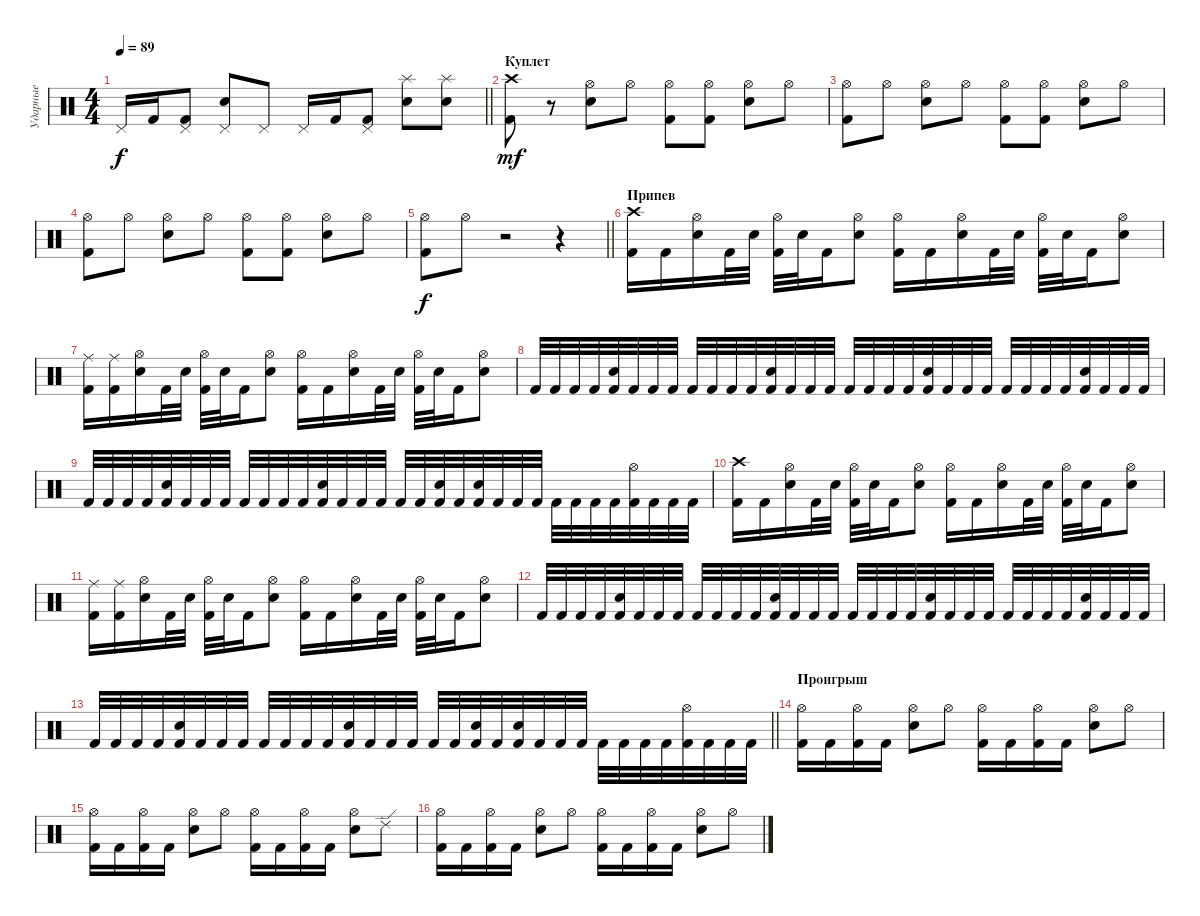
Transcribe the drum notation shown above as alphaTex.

\track ("Ударные" "Ударные") {instrument percussion}
\staff {score}
\articulation defaults
\ts (4 4)
\tempo 89
\clef neutral
\barLineRight lightlight
\ks c "Pedal Hi-Hat (hit)".16{dy f} "Kick (hit) 2".16
("Kick (hit) 2" "Pedal Hi-Hat (hit)").8 ("Electric Snare (hit)" "Pedal Hi-Hat (hit)").8 "Pedal Hi-Hat (hit)".8 "Pedal Hi-Hat (hit)".16 "Kick (hit) 2".16 ("Kick (hit) 2" "Pedal Hi-Hat (hit)").8 ("Electric Snare (hit)" "Splash (hit)").8 ("Electric Snare (hit)" "Splash (hit)").8 |
\section ("" "Куплет")
("Kick (hit) 2" "Crash high (hit)").8{dy mf} r.8 ("Electric Snare (hit)" "Hi-Hat (open)").8 "Hi-Hat (open)".8 ("Kick (hit) 2" "Hi-Hat (open)").8 ("Kick (hit) 2" "Hi-Hat (open)").8 ("Electric Snare (hit)" "Hi-Hat (open)").8 "Hi-Hat (open)".8 |
("Kick (hit) 2" "Hi-Hat (open)").8 "Hi-Hat (open)".8 ("Electric Snare (hit)" "Hi-Hat (open)").8 "Hi-Hat (open)".8 ("Kick (hit) 2" "Hi-Hat (open)").8 ("Kick (hit) 2" "Hi-Hat (open)").8 ("Electric Snare (hit)" "Hi-Hat (open)").8 "Hi-Hat (open)".8 |
("Kick (hit) 2" "Hi-Hat (open)").8 "Hi-Hat (open)".8 ("Electric Snare (hit)" "Hi-Hat (open)").8 "Hi-Hat (open)".8 ("Kick (hit) 2" "Hi-Hat (open)").8 ("Kick (hit) 2" "Hi-Hat (open)").8 ("Electric Snare (hit)" "Hi-Hat (open)").8 "Hi-Hat (open)".8 |
\barLineRight lightlight
("Kick (hit) 2" "Hi-Hat (open)").8{dy f} "Hi-Hat (open)".8 r.2 r.4 |
\section ("" "Припев")
("Kick (hit) 2" "Crash high (hit)").16 "Kick (hit) 2".16 ("Electric Snare (hit)" "Hi-Hat (open)").16 "Kick (hit) 2".32 "Electric Snare (hit)".32 ("Kick (hit) 2" "Hi-Hat (open)").32 "Electric Snare (hit)".32 "Kick (hit) 2".16 ("Electric Snare (hit)" "Hi-Hat (open)").8 ("Kick (hit) 2" "Hi-Hat (open)").16 "Kick (hit) 2".16 ("Electric Snare (hit)" "Hi-Hat (open)").16 "Kick (hit) 2".32 "Electric Snare (hit)".32 ("Kick (hit) 2" "Hi-Hat (open)").32 "Electric Snare (hit)".32 "Kick (hit) 2".16 ("Electric Snare (hit)" "Hi-Hat (open)").8 |
("Kick (hit) 2" "Ride (middle)").16 ("Kick (hit) 2" "Ride (middle)").16 ("Electric Snare (hit)" "Hi-Hat (open)").16 "Kick (hit) 2".32 "Electric Snare (hit)".32 ("Kick (hit) 2" "Hi-Hat (open)").32 "Electric Snare (hit)".32 "Kick (hit) 2".16 ("Electric Snare (hit)" "Hi-Hat (open)").8 ("Kick (hit) 2" "Hi-Hat (open)").16 "Kick (hit) 2".16 ("Electric Snare (hit)" "Hi-Hat (open)").16 "Kick (hit) 2".32 "Electric Snare (hit)".32 ("Kick (hit) 2" "Hi-Hat (open)").32 "Electric Snare (hit)".32 "Kick (hit) 2".16 ("Electric Snare (hit)" "Hi-Hat (open)").8 |
"Kick (hit) 2".32 "Kick (hit) 2".32 "Kick (hit) 2".32 "Kick (hit) 2".32 ("Kick (hit) 2" "Electric Snare (hit)").32 "Kick (hit) 2".32 "Kick (hit) 2".32 "Kick (hit) 2".32 "Kick (hit) 2".32 "Kick (hit) 2".32 "Kick (hit) 2".32 "Kick (hit) 2".32 ("Kick (hit) 2" "Electric Snare (hit)").32 "Kick (hit) 2".32 "Kick (hit) 2".32 "Kick (hit) 2".32 "Kick (hit) 2".32 "Kick (hit) 2".32 "Kick (hit) 2".32 "Kick (hit) 2".32 ("Kick (hit) 2" "Electric Snare (hit)").32 "Kick (hit) 2".32 "Kick (hit) 2".32 "Kick (hit) 2".32 "Kick (hit) 2".32 "Kick (hit) 2".32 "Kick (hit) 2".32 "Kick (hit) 2".32 ("Kick (hit) 2" "Electric Snare (hit)").32 "Kick (hit) 2".32 "Kick (hit) 2".32 "Kick (hit) 2".32 |
"Kick (hit) 2".32 "Kick (hit) 2".32 "Kick (hit) 2".32 "Kick (hit) 2".32 ("Kick (hit) 2" "Electric Snare (hit)").32 "Kick (hit) 2".32 "Kick (hit) 2".32 "Kick (hit) 2".32 "Kick (hit) 2".32 "Kick (hit) 2".32 "Kick (hit) 2".32 "Kick (hit) 2".32 ("Kick (hit) 2" "Electric Snare (hit)").32 "Kick (hit) 2".32 "Kick (hit) 2".32 "Kick (hit) 2".32 "Kick (hit) 2".32 "Kick (hit) 2".32 ("Kick (hit) 2" "Electric Snare (hit)").32 "Kick (hit) 2".32 ("Kick (hit) 2" "Electric Snare (hit)").32 "Kick (hit) 2".32 "Kick (hit) 2".32 "Kick (hit) 2".32 "Kick (hit) 2".32 "Kick (hit) 2".32 "Kick (hit) 2".32 "Kick (hit) 2".32 ("Kick (hit) 2" "Hi-Hat (open)").32 "Kick (hit) 2".32 "Kick (hit) 2".32 "Kick (hit) 2".32 |
("Kick (hit) 2" "Crash high (hit)").16 "Kick (hit) 2".16 ("Electric Snare (hit)" "Hi-Hat (open)").16 "Kick (hit) 2".32 "Electric Snare (hit)".32 ("Kick (hit) 2" "Hi-Hat (open)").32 "Electric Snare (hit)".32 "Kick (hit) 2".16 ("Electric Snare (hit)" "Hi-Hat (open)").8 ("Kick (hit) 2" "Hi-Hat (open)").16 "Kick (hit) 2".16 ("Electric Snare (hit)" "Hi-Hat (open)").16 "Kick (hit) 2".32 "Electric Snare (hit)".32 ("Kick (hit) 2" "Hi-Hat (open)").32 "Electric Snare (hit)".32 "Kick (hit) 2".16 ("Electric Snare (hit)" "Hi-Hat (open)").8 |
("Kick (hit) 2" "Ride (middle)").16 ("Kick (hit) 2" "Ride (middle)").16 ("Electric Snare (hit)" "Hi-Hat (open)").16 "Kick (hit) 2".32 "Electric Snare (hit)".32 ("Kick (hit) 2" "Hi-Hat (open)").32 "Electric Snare (hit)".32 "Kick (hit) 2".16 ("Electric Snare (hit)" "Hi-Hat (open)").8 ("Kick (hit) 2" "Hi-Hat (open)").16 "Kick (hit) 2".16 ("Electric Snare (hit)" "Hi-Hat (open)").16 "Kick (hit) 2".32 "Electric Snare (hit)".32 ("Kick (hit) 2" "Hi-Hat (open)").32 "Electric Snare (hit)".32 "Kick (hit) 2".16 ("Electric Snare (hit)" "Hi-Hat (open)").8 |
"Kick (hit) 2".32 "Kick (hit) 2".32 "Kick (hit) 2".32 "Kick (hit) 2".32 ("Kick (hit) 2" "Electric Snare (hit)").32 "Kick (hit) 2".32 "Kick (hit) 2".32 "Kick (hit) 2".32 "Kick (hit) 2".32 "Kick (hit) 2".32 "Kick (hit) 2".32 "Kick (hit) 2".32 ("Kick (hit) 2" "Electric Snare (hit)").32 "Kick (hit) 2".32 "Kick (hit) 2".32 "Kick (hit) 2".32 "Kick (hit) 2".32 "Kick (hit) 2".32 "Kick (hit) 2".32 "Kick (hit) 2".32 ("Kick (hit) 2" "Electric Snare (hit)").32 "Kick (hit) 2".32 "Kick (hit) 2".32 "Kick (hit) 2".32 "Kick (hit) 2".32 "Kick (hit) 2".32 "Kick (hit) 2".32 "Kick (hit) 2".32 ("Kick (hit) 2" "Electric Snare (hit)").32 "Kick (hit) 2".32 "Kick (hit) 2".32 "Kick (hit) 2".32 |
\barLineRight lightlight "Kick (hit) 2".32 "Kick (hit) 2".32 "Kick (hit) 2".32 "Kick (hit) 2".32
("Kick (hit) 2" "Electric Snare (hit)").32 "Kick (hit) 2".32 "Kick (hit) 2".32 "Kick (hit) 2".32 "Kick (hit) 2".32 "Kick (hit) 2".32 "Kick (hit) 2".32 "Kick (hit) 2".32 ("Kick (hit) 2" "Electric Snare (hit)").32 "Kick (hit) 2".32 "Kick (hit) 2".32 "Kick (hit) 2".32 "Kick (hit) 2".32 "Kick (hit) 2".32 ("Kick (hit) 2" "Electric Snare (hit)").32 "Kick (hit) 2".32 ("Kick (hit) 2" "Electric Snare (hit)").32 "Kick (hit) 2".32 "Kick (hit) 2".32 "Kick (hit) 2".32 "Kick (hit) 2".32 "Kick (hit) 2".32 "Kick (hit) 2".32 "Kick (hit) 2".32 ("Kick (hit) 2" "Hi-Hat (open)").32 "Kick (hit) 2".32 "Kick (hit) 2".32 "Kick (hit) 2".32 |
\section ("" "Проигрыш")
("Kick (hit) 2" "Hi-Hat (open)").16 "Kick (hit) 2".16 ("Kick (hit) 2" "Hi-Hat (open)").16 "Kick (hit) 2".16 ("Electric Snare (hit)" "Hi-Hat (open)").8 "Hi-Hat (open)".8 ("Kick (hit) 2" "Hi-Hat (open)").16 "Kick (hit) 2".16 ("Kick (hit) 2" "Hi-Hat (open)").16 "Kick (hit) 2".16 ("Electric Snare (hit)" "Hi-Hat (open)").8 "Hi-Hat (open)".8 |
("Kick (hit) 2" "Hi-Hat (open)").16 "Kick (hit) 2".16 ("Kick (hit) 2" "Hi-Hat (open)").16 "Kick (hit) 2".16 ("Electric Snare (hit)" "Hi-Hat (open)").8 "Hi-Hat (open)".8 ("Kick (hit) 2" "Hi-Hat (open)").16 "Kick (hit) 2".16 ("Kick (hit) 2" "Hi-Hat (open)").16 "Kick (hit) 2".16 ("Electric Snare (hit)" "Hi-Hat (open)").8 "Ride (edge) 2".8 |
("Kick (hit) 2" "Hi-Hat (open)").16 "Kick (hit) 2".16 ("Kick (hit) 2" "Hi-Hat (open)").16 "Kick (hit) 2".16 ("Electric Snare (hit)" "Hi-Hat (open)").8 "Hi-Hat (open)".8 ("Kick (hit) 2" "Hi-Hat (open)").16 "Kick (hit) 2".16 ("Kick (hit) 2" "Hi-Hat (open)").16 "Kick (hit) 2".16 ("Electric Snare (hit)" "Hi-Hat (open)").8 "Hi-Hat (open)".8
